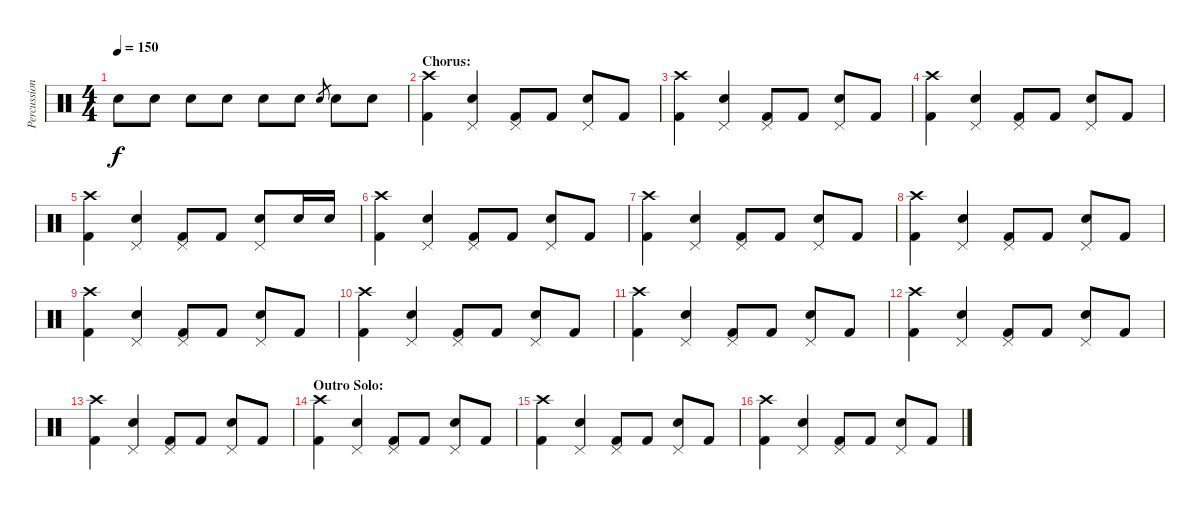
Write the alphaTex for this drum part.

\track ("Percussion" "Percussion") {instrument percussion}
\staff {score}
\articulation defaults
\ts (4 4)
\tempo 150
\clef neutral
\ks c "Snare (hit) 2".8{dy f} "Snare (hit) 2".8 "Snare (hit) 2".8 "Snare (hit) 2".8 "Snare (hit) 2".8 "Snare (hit) 2".8 "Snare (hit) 2".8{gr} "Snare (hit) 2".8 "Snare (hit) 2".8
|
\section ("" "Chorus:")
("Crash high (hit)" "Kick (hit) 2").4 ("Pedal Hi-Hat (hit)" "Snare (hit) 2").4 ("Pedal Hi-Hat (hit)" "Kick (hit) 2").8 "Kick (hit) 2".8 ("Pedal Hi-Hat (hit)" "Snare (hit) 2").8 "Kick (hit) 2".8 |
("Crash high (hit)" "Kick (hit) 2").4 ("Pedal Hi-Hat (hit)" "Snare (hit) 2").4 ("Pedal Hi-Hat (hit)" "Kick (hit) 2").8 "Kick (hit) 2".8 ("Pedal Hi-Hat (hit)" "Snare (hit) 2").8 "Kick (hit) 2".8 |
("Crash high (hit)" "Kick (hit) 2").4 ("Pedal Hi-Hat (hit)" "Snare (hit) 2").4 ("Pedal Hi-Hat (hit)" "Kick (hit) 2").8 "Kick (hit) 2".8 ("Pedal Hi-Hat (hit)" "Snare (hit) 2").8 "Kick (hit) 2".8 |
("Crash high (hit)" "Kick (hit) 2").4 ("Pedal Hi-Hat (hit)" "Snare (hit) 2").4 ("Pedal Hi-Hat (hit)" "Kick (hit) 2").8 "Kick (hit) 2".8 ("Pedal Hi-Hat (hit)" "Snare (hit) 2").8 "Snare (hit) 2".16 "Snare (hit) 2".16 |
("Crash high (hit)" "Kick (hit) 2").4 ("Pedal Hi-Hat (hit)" "Snare (hit) 2").4 ("Pedal Hi-Hat (hit)" "Kick (hit) 2").8 "Kick (hit) 2".8 ("Pedal Hi-Hat (hit)" "Snare (hit) 2").8 "Kick (hit) 2".8 |
("Crash high (hit)" "Kick (hit) 2").4 ("Pedal Hi-Hat (hit)" "Snare (hit) 2").4 ("Pedal Hi-Hat (hit)" "Kick (hit) 2").8 "Kick (hit) 2".8 ("Pedal Hi-Hat (hit)" "Snare (hit) 2").8 "Kick (hit) 2".8 |
("Crash high (hit)" "Kick (hit) 2").4 ("Pedal Hi-Hat (hit)" "Snare (hit) 2").4 ("Pedal Hi-Hat (hit)" "Kick (hit) 2").8 "Kick (hit) 2".8 ("Pedal Hi-Hat (hit)" "Snare (hit) 2").8 "Kick (hit) 2".8 |
("Crash high (hit)" "Kick (hit) 2").4 ("Pedal Hi-Hat (hit)" "Snare (hit) 2").4 ("Pedal Hi-Hat (hit)" "Kick (hit) 2").8 "Kick (hit) 2".8 ("Pedal Hi-Hat (hit)" "Snare (hit) 2").8 "Kick (hit) 2".8 |
("Crash high (hit)" "Kick (hit) 2").4 ("Pedal Hi-Hat (hit)" "Snare (hit) 2").4 ("Pedal Hi-Hat (hit)" "Kick (hit) 2").8 "Kick (hit) 2".8 ("Pedal Hi-Hat (hit)" "Snare (hit) 2").8 "Kick (hit) 2".8 |
("Crash high (hit)" "Kick (hit) 2").4 ("Pedal Hi-Hat (hit)" "Snare (hit) 2").4 ("Pedal Hi-Hat (hit)" "Kick (hit) 2").8 "Kick (hit) 2".8 ("Pedal Hi-Hat (hit)" "Snare (hit) 2").8 "Kick (hit) 2".8 |
("Crash high (hit)" "Kick (hit) 2").4 ("Pedal Hi-Hat (hit)" "Snare (hit) 2").4 ("Pedal Hi-Hat (hit)" "Kick (hit) 2").8 "Kick (hit) 2".8 ("Pedal Hi-Hat (hit)" "Snare (hit) 2").8 "Kick (hit) 2".8 |
("Crash high (hit)" "Kick (hit) 2").4 ("Pedal Hi-Hat (hit)" "Snare (hit) 2").4 ("Pedal Hi-Hat (hit)" "Kick (hit) 2").8 "Kick (hit) 2".8 ("Pedal Hi-Hat (hit)" "Snare (hit) 2").8 "Kick (hit) 2".8 |
\section ("" "Outro Solo:")
("Crash high (hit)" "Kick (hit) 2").4 ("Pedal Hi-Hat (hit)" "Snare (hit) 2").4 ("Pedal Hi-Hat (hit)" "Kick (hit) 2").8 "Kick (hit) 2".8 ("Pedal Hi-Hat (hit)" "Snare (hit) 2").8 "Kick (hit) 2".8 |
("Crash high (hit)" "Kick (hit) 2").4 ("Pedal Hi-Hat (hit)" "Snare (hit) 2").4 ("Pedal Hi-Hat (hit)" "Kick (hit) 2").8 "Kick (hit) 2".8 ("Pedal Hi-Hat (hit)" "Snare (hit) 2").8 "Kick (hit) 2".8 |
("Crash high (hit)" "Kick (hit) 2").4 ("Pedal Hi-Hat (hit)" "Snare (hit) 2").4 ("Pedal Hi-Hat (hit)" "Kick (hit) 2").8 "Kick (hit) 2".8 ("Pedal Hi-Hat (hit)" "Snare (hit) 2").8 "Kick (hit) 2".8
